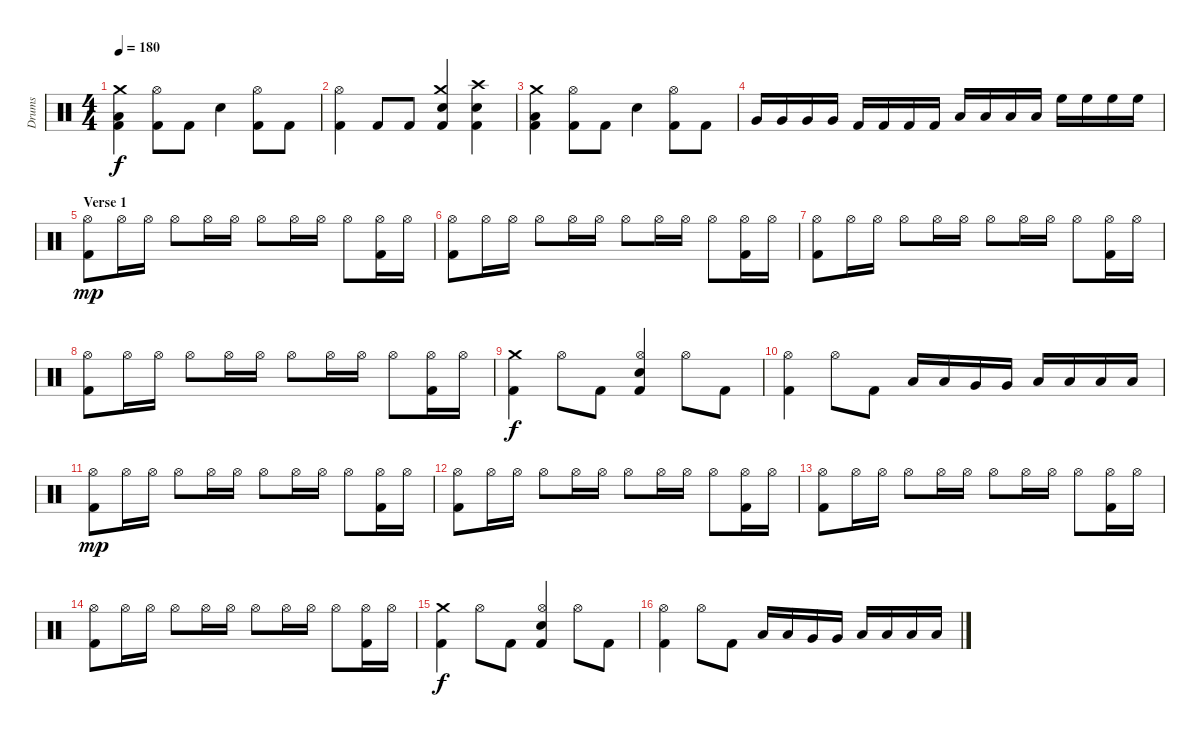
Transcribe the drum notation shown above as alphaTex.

\track ("Drums" "Drums") {instrument percussion}
\staff {score}
\articulation defaults
\ts (4 4)
\tempo 180
\clef neutral
\ks c
("Kick (hit) 2" "Low Floor Tom (hit)" "Crash medium (hit)").4{dy f} ("Kick (hit) 2" "Hi-Hat (open)").8 "Kick (hit) 2".8 "Electric Snare (hit)".4 ("Kick (hit) 2" "Hi-Hat (open)").8 "Kick (hit) 2".8 |
("Kick (hit) 2" "Hi-Hat (open)").4 "Kick (hit) 2".8 "Kick (hit) 2".8 ("Kick (hit) 2" "Electric Snare (hit)" "Crash medium (hit)").4 ("Kick (hit) 2" "Electric Snare (hit)" "Crash high (hit)").4 |
("Kick (hit) 2" "Low Floor Tom (hit)" "Crash medium (hit)").4 ("Kick (hit) 2" "Hi-Hat (open)").8 "Kick (hit) 2".8 "Electric Snare (hit)".4 ("Kick (hit) 2" "Hi-Hat (open)").8 "Kick (hit) 2".8 |
"Very Low Tom (hit)".16 "Very Low Tom (hit)".16 "Very Low Tom (hit)".16 "Very Low Tom (hit)".16 "Kick (hit) 2".16 "Kick (hit) 2".16 "Kick (hit) 2".16 "Kick (hit) 2".16 "Low Tom (hit)".16 "Low Tom (hit)".16 "Low Tom (hit)".16 "Low Tom (hit)".16 "High Floor Tom (hit)".16 "High Floor Tom (hit)".16 "High Floor Tom (hit)".16 "High Floor Tom (hit)".16 |
\section ("" "Verse 1")
("Kick (hit) 2" "Hi-Hat (open)").8{dy mp} "Hi-Hat (open)".16 "Hi-Hat (open)".16 "Hi-Hat (open)".8 "Hi-Hat (open)".16 "Hi-Hat (open)".16 "Hi-Hat (open)".8 "Hi-Hat (open)".16 "Hi-Hat (open)".16 "Hi-Hat (open)".8 ("Kick (hit) 2" "Hi-Hat (open)").16 "Hi-Hat (open)".16 |
("Kick (hit) 2" "Hi-Hat (open)").8 "Hi-Hat (open)".16 "Hi-Hat (open)".16 "Hi-Hat (open)".8 "Hi-Hat (open)".16 "Hi-Hat (open)".16 "Hi-Hat (open)".8 "Hi-Hat (open)".16 "Hi-Hat (open)".16 "Hi-Hat (open)".8 ("Kick (hit) 2" "Hi-Hat (open)").16 "Hi-Hat (open)".16 |
("Kick (hit) 2" "Hi-Hat (open)").8 "Hi-Hat (open)".16 "Hi-Hat (open)".16 "Hi-Hat (open)".8 "Hi-Hat (open)".16 "Hi-Hat (open)".16 "Hi-Hat (open)".8 "Hi-Hat (open)".16 "Hi-Hat (open)".16 "Hi-Hat (open)".8 ("Kick (hit) 2" "Hi-Hat (open)").16 "Hi-Hat (open)".16 |
("Kick (hit) 2" "Hi-Hat (open)").8 "Hi-Hat (open)".16 "Hi-Hat (open)".16 "Hi-Hat (open)".8 "Hi-Hat (open)".16 "Hi-Hat (open)".16 "Hi-Hat (open)".8 "Hi-Hat (open)".16 "Hi-Hat (open)".16 "Hi-Hat (open)".8 ("Kick (hit) 2" "Hi-Hat (open)").16 "Hi-Hat (open)".16 |
("Kick (hit) 2" "Crash medium (hit)").4{dy f} "Hi-Hat (open)".8 "Kick (hit) 2".8 ("Kick (hit) 2" "Electric Snare (hit)" "Hi-Hat (open)").4 "Hi-Hat (open)".8 "Kick (hit) 2".8 |
("Kick (hit) 2" "Hi-Hat (open)").4 "Hi-Hat (open)".8 "Kick (hit) 2".8 "Low Floor Tom (hit)".16 "Low Floor Tom (hit)".16 "Very Low Tom (hit)".16 "Very Low Tom (hit)".16 "Low Tom (hit)".16 "Low Tom (hit)".16 "Low Tom (hit)".16 "Low Tom (hit)".16 |
("Kick (hit) 2" "Hi-Hat (open)").8{dy mp} "Hi-Hat (open)".16 "Hi-Hat (open)".16 "Hi-Hat (open)".8 "Hi-Hat (open)".16 "Hi-Hat (open)".16 "Hi-Hat (open)".8 "Hi-Hat (open)".16 "Hi-Hat (open)".16 "Hi-Hat (open)".8 ("Kick (hit) 2" "Hi-Hat (open)").16 "Hi-Hat (open)".16 |
("Kick (hit) 2" "Hi-Hat (open)").8 "Hi-Hat (open)".16 "Hi-Hat (open)".16 "Hi-Hat (open)".8 "Hi-Hat (open)".16 "Hi-Hat (open)".16 "Hi-Hat (open)".8 "Hi-Hat (open)".16 "Hi-Hat (open)".16 "Hi-Hat (open)".8 ("Kick (hit) 2" "Hi-Hat (open)").16 "Hi-Hat (open)".16 |
("Kick (hit) 2" "Hi-Hat (open)").8 "Hi-Hat (open)".16 "Hi-Hat (open)".16 "Hi-Hat (open)".8 "Hi-Hat (open)".16 "Hi-Hat (open)".16 "Hi-Hat (open)".8 "Hi-Hat (open)".16 "Hi-Hat (open)".16 "Hi-Hat (open)".8 ("Kick (hit) 2" "Hi-Hat (open)").16 "Hi-Hat (open)".16 |
("Kick (hit) 2" "Hi-Hat (open)").8 "Hi-Hat (open)".16 "Hi-Hat (open)".16 "Hi-Hat (open)".8 "Hi-Hat (open)".16 "Hi-Hat (open)".16 "Hi-Hat (open)".8 "Hi-Hat (open)".16 "Hi-Hat (open)".16 "Hi-Hat (open)".8 ("Kick (hit) 2" "Hi-Hat (open)").16 "Hi-Hat (open)".16 |
("Kick (hit) 2" "Crash medium (hit)").4{dy f} "Hi-Hat (open)".8 "Kick (hit) 2".8 ("Kick (hit) 2" "Electric Snare (hit)" "Hi-Hat (open)").4 "Hi-Hat (open)".8 "Kick (hit) 2".8 |
("Kick (hit) 2" "Hi-Hat (open)").4 "Hi-Hat (open)".8 "Kick (hit) 2".8 "Low Floor Tom (hit)".16 "Low Floor Tom (hit)".16 "Very Low Tom (hit)".16 "Very Low Tom (hit)".16 "Low Tom (hit)".16 "Low Tom (hit)".16 "Low Tom (hit)".16 "Low Tom (hit)".16
